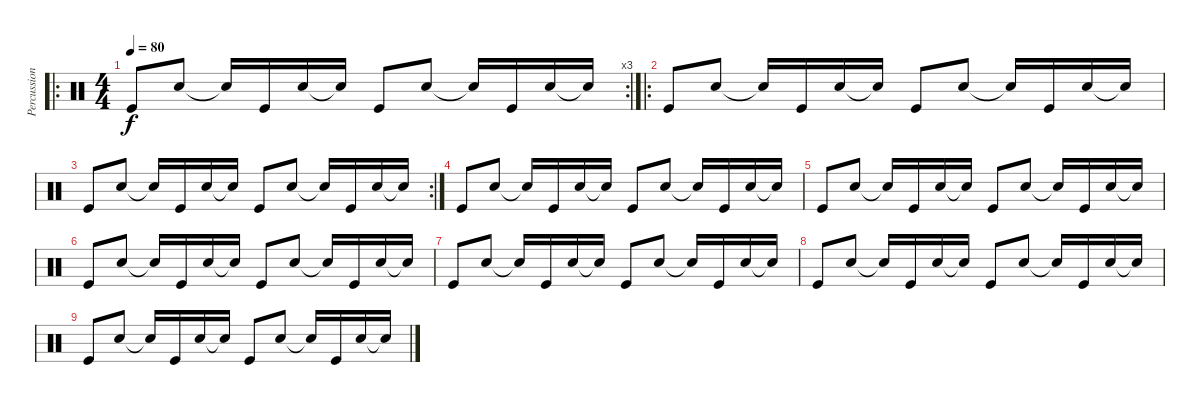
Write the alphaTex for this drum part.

\track ("Percussion" "Percussion") {instrument percussion}
\staff {score}
\articulation defaults
\ro
\rc 3
\ts (4 4)
\tempo 80
\clef neutral
\ks c "Kick (hit)".8{dy f} "Snare (hit) 2".8 "Snare (hit)"{t}.16 "Kick (hit)".16 "Snare (hit) 2".16 "Snare (hit)"{t}.16 "Kick (hit)".8 "Snare (hit) 2".8 "Snare (hit)"{t}.16 "Kick (hit)".16 "Snare (hit) 2".16 "Snare (hit)"{t}.16
|
\ro "Kick (hit)".8 "Snare (hit) 2".8 "Snare (hit)"{t}.16 "Kick (hit)".16 "Snare (hit) 2".16 "Snare (hit)"{t}.16 "Kick (hit)".8 "Snare (hit) 2".8 "Snare (hit)"{t}.16 "Kick (hit)".16 "Snare (hit) 2".16 "Snare (hit)"{t}.16
|
\rc 2 "Kick (hit)".8 "Snare (hit) 2".8 "Snare (hit)"{t}.16 "Kick (hit)".16 "Snare (hit) 2".16 "Snare (hit)"{t}.16 "Kick (hit)".8 "Snare (hit) 2".8 "Snare (hit)"{t}.16 "Kick (hit)".16 "Snare (hit) 2".16 "Snare (hit)"{t}.16
|
"Kick (hit)".8 "Snare (hit) 2".8 "Snare (hit)"{t}.16 "Kick (hit)".16 "Snare (hit) 2".16 "Snare (hit)"{t}.16 "Kick (hit)".8 "Snare (hit) 2".8 "Snare (hit)"{t}.16 "Kick (hit)".16 "Snare (hit) 2".16 "Snare (hit)"{t}.16 |
"Kick (hit)".8 "Snare (hit) 2".8 "Snare (hit)"{t}.16 "Kick (hit)".16 "Snare (hit) 2".16 "Snare (hit)"{t}.16 "Kick (hit)".8 "Snare (hit) 2".8 "Snare (hit)"{t}.16 "Kick (hit)".16 "Snare (hit) 2".16 "Snare (hit)"{t}.16 |
"Kick (hit)".8 "Snare (hit) 2".8 "Snare (hit)"{t}.16 "Kick (hit)".16 "Snare (hit) 2".16 "Snare (hit)"{t}.16 "Kick (hit)".8 "Snare (hit) 2".8 "Snare (hit)"{t}.16 "Kick (hit)".16 "Snare (hit) 2".16 "Snare (hit)"{t}.16 |
"Kick (hit)".8 "Snare (hit) 2".8 "Snare (hit)"{t}.16 "Kick (hit)".16 "Snare (hit) 2".16 "Snare (hit)"{t}.16 "Kick (hit)".8 "Snare (hit) 2".8 "Snare (hit)"{t}.16 "Kick (hit)".16 "Snare (hit) 2".16 "Snare (hit)"{t}.16 |
"Kick (hit)".8 "Snare (hit) 2".8 "Snare (hit)"{t}.16 "Kick (hit)".16 "Snare (hit) 2".16 "Snare (hit)"{t}.16 "Kick (hit)".8 "Snare (hit) 2".8 "Snare (hit)"{t}.16 "Kick (hit)".16 "Snare (hit) 2".16 "Snare (hit)"{t}.16 |
"Kick (hit)".8 "Snare (hit) 2".8 "Snare (hit)"{t}.16 "Kick (hit)".16 "Snare (hit) 2".16 "Snare (hit)"{t}.16 "Kick (hit)".8 "Snare (hit) 2".8 "Snare (hit)"{t}.16 "Kick (hit)".16 "Snare (hit) 2".16 "Snare (hit)"{t}.16
